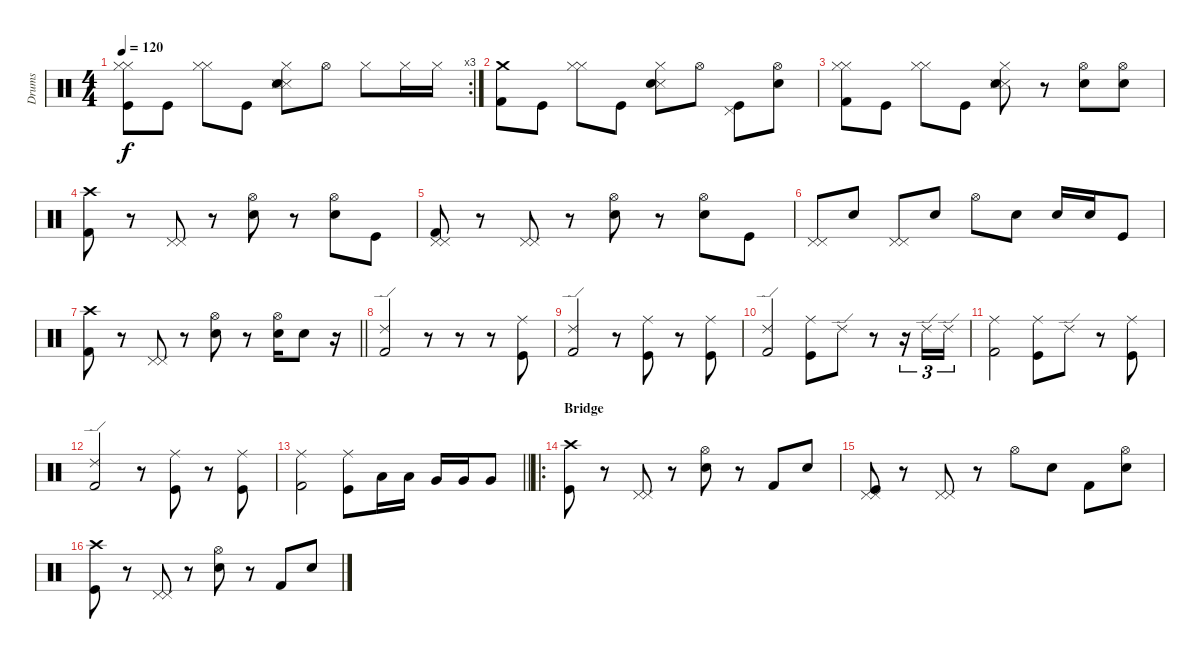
\track ("Drums" "Drums") {instrument percussion}
\staff {score}
\articulation defaults
\rc 3
\ts (4 4)
\tempo 120
\clef neutral
\ks c
("Hi-Hat (closed)" "Hi-Hat (closed)" "Kick (hit)").8{dy f} "Kick (hit)".8 ("Hi-Hat (closed)" "Hi-Hat (closed)").8 "Kick (hit)".8 ("Snare (side stick) 3" "Hi-Hat (closed)" "Snare (side stick) 3" "Snare (hit) 2").8 "Hi-Hat (open)".8 "Hi-Hat (closed)".8 "Hi-Hat (closed)".16 "Hi-Hat (closed)".16 |
("Crash medium (hit)" "Kick (hit) 2").8 "Kick (hit)".8 ("Hi-Hat (closed)" "Hi-Hat (closed)").8 "Kick (hit)".8 ("Snare (side stick) 3" "Hi-Hat (closed)" "Snare (hit) 2").8 "Hi-Hat (open)".8 ("Pedal Hi-Hat (hit)" "Kick (hit)").8 ("Hi-Hat (open)" "Snare (hit) 2").8 |
("Hi-Hat (closed)" "Hi-Hat (closed)" "Kick (hit) 2").8 "Kick (hit)".8 ("Hi-Hat (closed)" "Hi-Hat (closed)").8 "Kick (hit)".8 ("Snare (side stick) 3" "Hi-Hat (closed)" "Snare (side stick) 3" "Snare (hit) 2").8 r.8 ("Hi-Hat (open)" "Snare (hit) 2").8 ("Hi-Hat (open)" "Snare (hit) 2").8 |
("Crash high (hit)" "Kick (hit) 2").8 r.8 ("Pedal Hi-Hat (hit)" "Pedal Hi-Hat (hit)").8 r.8 ("Hi-Hat (open)" "Snare (hit) 2").8 r.8 ("Hi-Hat (open)" "Snare (hit) 2").8 "Kick (hit)".8 |
("Pedal Hi-Hat (hit)" "Pedal Hi-Hat (hit)" "Kick (hit) 2").8 r.8 ("Pedal Hi-Hat (hit)" "Pedal Hi-Hat (hit)").8 r.8 ("Hi-Hat (open)" "Snare (hit) 2").8 r.8 ("Hi-Hat (open)" "Snare (hit) 2").8 "Kick (hit)".8 |
("Pedal Hi-Hat (hit)" "Pedal Hi-Hat (hit)").8 "Snare (hit) 2".8 ("Pedal Hi-Hat (hit)" "Pedal Hi-Hat (hit)").8 "Snare (hit) 2".8 "Hi-Hat (open)".8 "Snare (hit) 2".8 "Snare (hit) 2".16 "Snare (hit) 2".16 "Kick (hit)".8 |
\barLineRight lightlight
("Crash high (hit)" "Kick (hit) 2").8 r.8 ("Pedal Hi-Hat (hit)" "Pedal Hi-Hat (hit)").8 r.8 ("Hi-Hat (open)" "Snare (hit) 2").8 r.8 ("Hi-Hat (open)" "Snare (hit) 2").16 "Snare (hit) 2".8 r.16 |
("Ride (edge) 2" "Kick (hit) 2").2 r.8 r.8 r.8 ("Ride (middle)" "Kick (hit)").8 |
("Ride (edge) 2" "Kick (hit) 2").2 r.8 ("Ride (middle)" "Kick (hit)").8 r.8 ("Ride (middle)" "Kick (hit)").8 |
("Ride (edge) 2" "Kick (hit) 2").2 ("Ride (middle)" "Kick (hit)").8 "Ride (edge) 2".8 r.8 r.16{tu (3 2)} "Ride (edge) 2".16{tu (3 2)} "Ride (edge) 2".16{tu (3 2)} |
("Ride (middle)" "Kick (hit) 2").2 ("Ride (middle)" "Kick (hit)").8 "Ride (edge) 2".8 r.8 ("Ride (middle)" "Kick (hit)").8 |
("Ride (edge) 2" "Kick (hit) 2").2 r.8 ("Ride (middle)" "Kick (hit)").8 r.8 ("Ride (middle)" "Kick (hit)").8 |
\barLineRight lightlight
("Ride (middle)" "Kick (hit) 2").2 ("Ride (middle)" "Kick (hit)").8 "Low Tom (hit)".16 "Low Tom (hit)".16 "Very Low Tom (hit)".16 "Very Low Tom (hit)".16 "Very Low Tom (hit)".8 |
\ro
\section ("" "Bridge")
("Crash high (hit)" "Kick (hit)").8 r.8 ("Pedal Hi-Hat (hit)" "Pedal Hi-Hat (hit)").8 r.8 ("Hi-Hat (open)" "Snare (hit) 2").8 r.8 "Kick (hit) 2".8 "Snare (hit) 2".8 |
("Pedal Hi-Hat (hit)" "Pedal Hi-Hat (hit)" "Kick (hit)").8 r.8 ("Pedal Hi-Hat (hit)" "Pedal Hi-Hat (hit)").8 r.8 "Hi-Hat (open)".8 "Snare (hit) 2".8 "Kick (hit) 2".8 ("Hi-Hat (open)" "Snare (hit) 2").8 |
("Crash high (hit)" "Kick (hit)").8 r.8 ("Pedal Hi-Hat (hit)" "Pedal Hi-Hat (hit)").8 r.8 ("Hi-Hat (open)" "Snare (hit) 2").8 r.8 "Kick (hit) 2".8 "Snare (hit) 2".8
